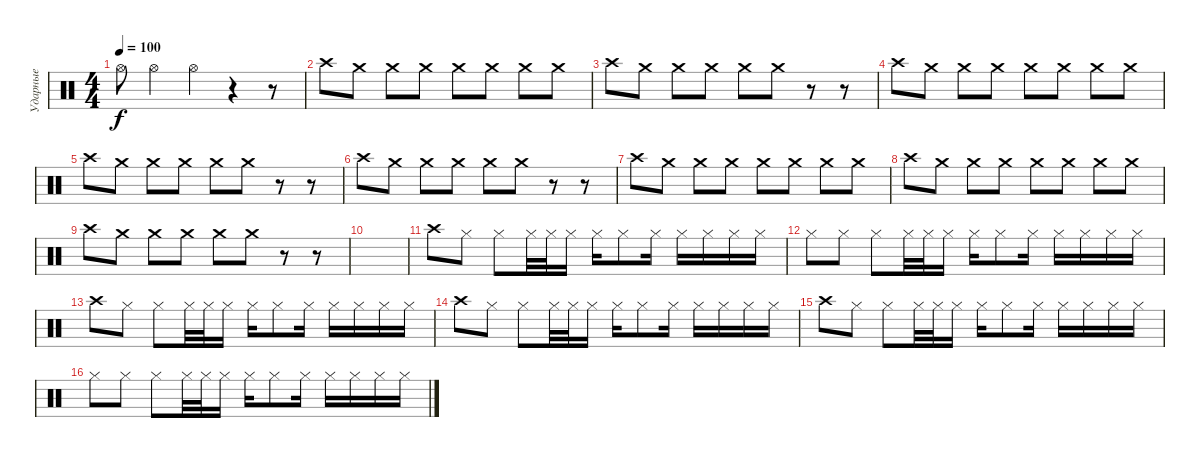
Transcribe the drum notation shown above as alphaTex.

\track ("Ударные" "Ударные") {instrument percussion}
\staff {score}
\articulation defaults
\ts (4 4)
\tempo 100
\clef neutral
\ks c "Hi-Hat (open)"{t}.8{dy f} "Hi-Hat (open)".4 "Hi-Hat (open)".4
r.4 r.8 |
"Crash high (hit)".8 "Crash medium (hit)".8 "Crash medium (hit)".8 "Crash medium (hit)".8 "Crash medium (hit)".8 "Crash medium (hit)".8 "Crash medium (hit)".8 "Crash medium (hit)".8 |
"Crash high (hit)".8 "Crash medium (hit)".8 "Crash medium (hit)".8 "Crash medium (hit)".8 "Crash medium (hit)".8 "Crash medium (hit)".8 r.8 r.8 |
"Crash high (hit)".8 "Crash medium (hit)".8 "Crash medium (hit)".8 "Crash medium (hit)".8 "Crash medium (hit)".8 "Crash medium (hit)".8 "Crash medium (hit)".8 "Crash medium (hit)".8 |
"Crash high (hit)".8 "Crash medium (hit)".8 "Crash medium (hit)".8 "Crash medium (hit)".8 "Crash medium (hit)".8 "Crash medium (hit)".8 r.8 r.8 |
"Crash high (hit)".8 "Crash medium (hit)".8 "Crash medium (hit)".8 "Crash medium (hit)".8 "Crash medium (hit)".8 "Crash medium (hit)".8 r.8 r.8 |
"Crash high (hit)".8 "Crash medium (hit)".8 "Crash medium (hit)".8 "Crash medium (hit)".8 "Crash medium (hit)".8 "Crash medium (hit)".8 "Crash medium (hit)".8 "Crash medium (hit)".8 |
"Crash high (hit)".8 "Crash medium (hit)".8 "Crash medium (hit)".8 "Crash medium (hit)".8 "Crash medium (hit)".8 "Crash medium (hit)".8 "Crash medium (hit)".8 "Crash medium (hit)".8 |
"Crash high (hit)".8 "Crash medium (hit)".8 "Crash medium (hit)".8 "Crash medium (hit)".8 "Crash medium (hit)".8 "Crash medium (hit)".8 r.8 r.8 |
|
"Crash high (hit)".8 "Hi-Hat (closed)".8 "Hi-Hat (closed)".8 "Hi-Hat (closed)".32 "Hi-Hat (closed)".32 "Hi-Hat (closed)".16 "Hi-Hat (closed)".16 "Hi-Hat (closed)".8 "Hi-Hat (closed)".16 "Hi-Hat (closed)".16 "Hi-Hat (closed)".16 "Hi-Hat (closed)".16 "Hi-Hat (closed)".16 |
"Hi-Hat (closed)".8 "Hi-Hat (closed)".8 "Hi-Hat (closed)".8 "Hi-Hat (closed)".32 "Hi-Hat (closed)".32 "Hi-Hat (closed)".16 "Hi-Hat (closed)".16 "Hi-Hat (closed)".8 "Hi-Hat (closed)".16 "Hi-Hat (closed)".16 "Hi-Hat (closed)".16 "Hi-Hat (closed)".16 "Hi-Hat (closed)".16 |
"Crash high (hit)".8 "Hi-Hat (closed)".8 "Hi-Hat (closed)".8 "Hi-Hat (closed)".32 "Hi-Hat (closed)".32 "Hi-Hat (closed)".16 "Hi-Hat (closed)".16 "Hi-Hat (closed)".8 "Hi-Hat (closed)".16 "Hi-Hat (closed)".16 "Hi-Hat (closed)".16 "Hi-Hat (closed)".16 "Hi-Hat (closed)".16 |
"Crash high (hit)".8 "Hi-Hat (closed)".8 "Hi-Hat (closed)".8 "Hi-Hat (closed)".32 "Hi-Hat (closed)".32 "Hi-Hat (closed)".16 "Hi-Hat (closed)".16 "Hi-Hat (closed)".8 "Hi-Hat (closed)".16 "Hi-Hat (closed)".16 "Hi-Hat (closed)".16 "Hi-Hat (closed)".16 "Hi-Hat (closed)".16 |
"Crash high (hit)".8 "Hi-Hat (closed)".8 "Hi-Hat (closed)".8 "Hi-Hat (closed)".32 "Hi-Hat (closed)".32 "Hi-Hat (closed)".16 "Hi-Hat (closed)".16 "Hi-Hat (closed)".8 "Hi-Hat (closed)".16 "Hi-Hat (closed)".16 "Hi-Hat (closed)".16 "Hi-Hat (closed)".16 "Hi-Hat (closed)".16 |
"Hi-Hat (closed)".8 "Hi-Hat (closed)".8 "Hi-Hat (closed)".8 "Hi-Hat (closed)".32 "Hi-Hat (closed)".32 "Hi-Hat (closed)".16 "Hi-Hat (closed)".16 "Hi-Hat (closed)".8 "Hi-Hat (closed)".16 "Hi-Hat (closed)".16 "Hi-Hat (closed)".16 "Hi-Hat (closed)".16 "Hi-Hat (closed)".16
